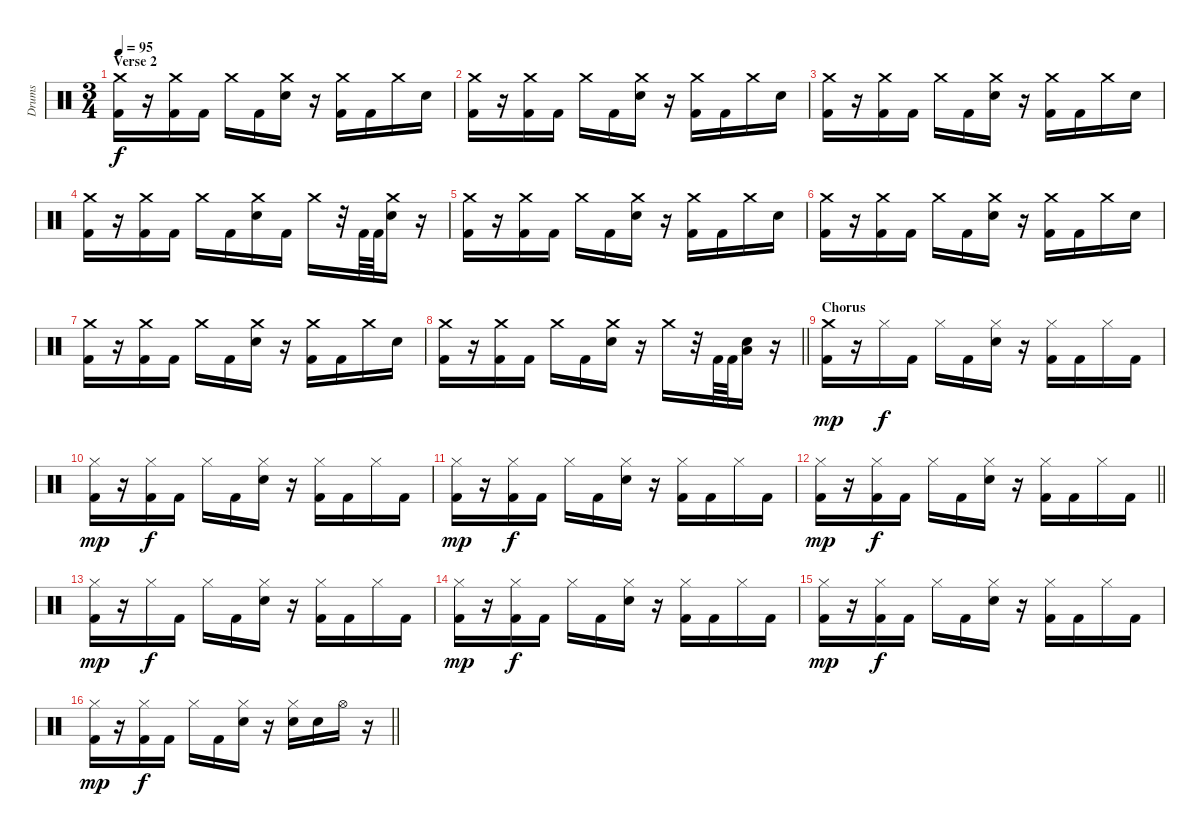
\track ("Drums" "Drums") {instrument percussion}
\staff {score}
\articulation defaults
\ts (3 4)
\section ("" "Verse 2")
\tempo 95
\clef neutral
\ks c
("Crash medium (hit)" "Kick (hit) 2").16{dy f} r.16 ("Crash medium (hit)" "Kick (hit) 2").16 "Kick (hit) 2".16 "Crash medium (hit)".16 "Kick (hit) 2".16 ("Crash medium (hit)" "Electric Snare (hit)").16 r.16 ("Crash medium (hit)" "Kick (hit) 2").16 "Kick (hit) 2".16 "Crash medium (hit)".16 "Electric Snare (hit)".16 |
("Crash medium (hit)" "Kick (hit) 2").16 r.16 ("Crash medium (hit)" "Kick (hit) 2").16 "Kick (hit) 2".16 "Crash medium (hit)".16 "Kick (hit) 2".16 ("Crash medium (hit)" "Electric Snare (hit)").16 r.16 ("Crash medium (hit)" "Kick (hit) 2").16 "Kick (hit) 2".16 "Crash medium (hit)".16 "Electric Snare (hit)".16 |
("Crash medium (hit)" "Kick (hit) 2").16 r.16 ("Crash medium (hit)" "Kick (hit) 2").16 "Kick (hit) 2".16 "Crash medium (hit)".16 "Kick (hit) 2".16 ("Crash medium (hit)" "Electric Snare (hit)").16 r.16 ("Crash medium (hit)" "Kick (hit) 2").16 "Kick (hit) 2".16 "Crash medium (hit)".16 "Electric Snare (hit)".16 |
("Crash medium (hit)" "Kick (hit) 2").16 r.16 ("Crash medium (hit)" "Kick (hit) 2").16 "Kick (hit) 2".16 "Crash medium (hit)".16 "Kick (hit) 2".16 ("Crash medium (hit)" "Electric Snare (hit)").16 "Kick (hit) 2".16 "Crash medium (hit)".16 r.32 "Kick (hit) 2".64 "Kick (hit) 2".64 ("Crash medium (hit)" "Electric Snare (hit)").16 r.16 |
("Crash medium (hit)" "Kick (hit) 2").16 r.16 ("Crash medium (hit)" "Kick (hit) 2").16 "Kick (hit) 2".16 "Crash medium (hit)".16 "Kick (hit) 2".16 ("Crash medium (hit)" "Electric Snare (hit)").16 r.16 ("Crash medium (hit)" "Kick (hit) 2").16 "Kick (hit) 2".16 "Crash medium (hit)".16 "Electric Snare (hit)".16 |
("Crash medium (hit)" "Kick (hit) 2").16 r.16 ("Crash medium (hit)" "Kick (hit) 2").16 "Kick (hit) 2".16 "Crash medium (hit)".16 "Kick (hit) 2".16 ("Crash medium (hit)" "Electric Snare (hit)").16 r.16 ("Crash medium (hit)" "Kick (hit) 2").16 "Kick (hit) 2".16 "Crash medium (hit)".16 "Electric Snare (hit)".16 |
("Crash medium (hit)" "Kick (hit) 2").16 r.16 ("Crash medium (hit)" "Kick (hit) 2").16 "Kick (hit) 2".16 "Crash medium (hit)".16 "Kick (hit) 2".16 ("Crash medium (hit)" "Electric Snare (hit)").16 r.16 ("Crash medium (hit)" "Kick (hit) 2").16 "Kick (hit) 2".16 "Crash medium (hit)".16 "Electric Snare (hit)".16 |
\barLineRight lightlight
("Crash medium (hit)" "Kick (hit) 2").16 r.16 ("Crash medium (hit)" "Kick (hit) 2").16 "Kick (hit) 2".16 "Crash medium (hit)".16 "Kick (hit) 2".16 ("Crash medium (hit)" "Electric Snare (hit)").16 r.16 "Crash medium (hit)".16 r.32 "Kick (hit) 2".64 "Kick (hit) 2".64 ("Low Floor Tom (hit)" "Electric Snare (hit)").16 r.16 |
\section ("" "Chorus")
("Crash medium (hit)" "Kick (hit) 2").16{dy mp} r.16 "Hi-Hat (closed)".16{dy f} "Kick (hit) 2".16 "Hi-Hat (closed)".16 "Kick (hit) 2".16 ("Hi-Hat (closed)" "Electric Snare (hit)").16 r.16 ("Hi-Hat (closed)" "Kick (hit) 2").16 "Kick (hit) 2".16 "Hi-Hat (closed)".16 "Kick (hit) 2".16 |
("Hi-Hat (closed)" "Kick (hit) 2").16{dy mp} r.16 ("Hi-Hat (closed)" "Kick (hit) 2").16{dy f} "Kick (hit) 2".16 "Hi-Hat (closed)".16 "Kick (hit) 2".16 ("Hi-Hat (closed)" "Electric Snare (hit)").16 r.16 ("Hi-Hat (closed)" "Kick (hit) 2").16 "Kick (hit) 2".16 "Hi-Hat (closed)".16 "Kick (hit) 2".16 |
("Hi-Hat (closed)" "Kick (hit) 2").16{dy mp} r.16 ("Hi-Hat (closed)" "Kick (hit) 2").16{dy f} "Kick (hit) 2".16 "Hi-Hat (closed)".16 "Kick (hit) 2".16 ("Hi-Hat (closed)" "Electric Snare (hit)").16 r.16 ("Hi-Hat (closed)" "Kick (hit) 2").16 "Kick (hit) 2".16 "Hi-Hat (closed)".16 "Kick (hit) 2".16 |
\barLineRight lightlight
("Hi-Hat (closed)" "Kick (hit) 2").16{dy mp} r.16 ("Hi-Hat (closed)" "Kick (hit) 2").16{dy f} "Kick (hit) 2".16 "Hi-Hat (closed)".16 "Kick (hit) 2".16 ("Hi-Hat (closed)" "Electric Snare (hit)").16 r.16 ("Hi-Hat (closed)" "Kick (hit) 2").16 "Kick (hit) 2".16 "Hi-Hat (closed)".16 "Kick (hit) 2".16 |
("Hi-Hat (closed)" "Kick (hit) 2").16{dy mp} r.16 "Hi-Hat (closed)".16{dy f} "Kick (hit) 2".16 "Hi-Hat (closed)".16 "Kick (hit) 2".16 ("Hi-Hat (closed)" "Electric Snare (hit)").16 r.16 ("Hi-Hat (closed)" "Kick (hit) 2").16 "Kick (hit) 2".16 "Hi-Hat (closed)".16 "Kick (hit) 2".16 |
("Hi-Hat (closed)" "Kick (hit) 2").16{dy mp} r.16 ("Hi-Hat (closed)" "Kick (hit) 2").16{dy f} "Kick (hit) 2".16 "Hi-Hat (closed)".16 "Kick (hit) 2".16 ("Hi-Hat (closed)" "Electric Snare (hit)").16 r.16 ("Hi-Hat (closed)" "Kick (hit) 2").16 "Kick (hit) 2".16 "Hi-Hat (closed)".16 "Kick (hit) 2".16 |
("Hi-Hat (closed)" "Kick (hit) 2").16{dy mp} r.16 ("Hi-Hat (closed)" "Kick (hit) 2").16{dy f} "Kick (hit) 2".16 "Hi-Hat (closed)".16 "Kick (hit) 2".16 ("Hi-Hat (closed)" "Electric Snare (hit)").16 r.16 ("Hi-Hat (closed)" "Kick (hit) 2").16 "Kick (hit) 2".16 "Hi-Hat (closed)".16 "Kick (hit) 2".16 |
\barLineRight lightlight
("Hi-Hat (closed)" "Kick (hit) 2").16{dy mp} r.16 ("Hi-Hat (closed)" "Kick (hit) 2").16{dy f} "Kick (hit) 2".16 "Hi-Hat (closed)".16 "Kick (hit) 2".16 ("Hi-Hat (closed)" "Electric Snare (hit)").16 r.16 ("Hi-Hat (closed)" "Electric Snare (hit)").16 "Electric Snare (hit)".16 "Hi-Hat (open)".16 r.16
